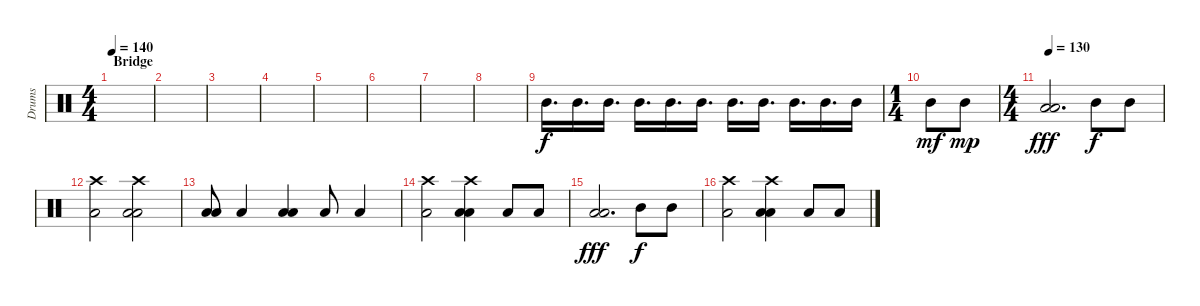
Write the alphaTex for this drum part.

\track ("Drums" "Drums") {instrument percussion}
\staff {score}
\articulation defaults
\ts (4 4)
\section ("" "Bridge")
\tempo 140
\clef neutral
\ks c
|
|
|
|
|
|
|
|
"Mid Tom (hit)".16{d} "Mid Tom (hit)".16{d} "Mid Tom (hit)".16{d} "Mid Tom (hit)".16{d} "Mid Tom (hit)".16{d} "Mid Tom (hit)".16{d} "Mid Tom (hit)".16{d} "Mid Tom (hit)".16{d} "Mid Tom (hit)".16{d} "Mid Tom (hit)".16{d} "Mid Tom (hit)".16 |
\ts (1 4)
"Mid Tom (hit)".8{dy mf} "Mid Tom (hit)".8{dy mp} |
\ts (4 4)
\tempo 130
("Low Tom (hit)" "Low Floor Tom (hit)").2{d dy fff} "Mid Tom (hit)".8{dy f} "Mid Tom (hit)".8 |
("Crash high (hit)" "Low Tom (hit)").2 ("Crash high (hit)" "Low Tom (hit)" "Low Floor Tom (hit)").2 |
("Low Tom (hit)" "Low Floor Tom (hit)").8 "Low Tom (hit)".4 ("Low Tom (hit)" "Low Floor Tom (hit)").4 "Low Tom (hit)".8 "Low Tom (hit)".4 |
("Crash high (hit)" "Low Tom (hit)").2 ("Crash high (hit)" "Low Tom (hit)" "Low Floor Tom (hit)").4 "Low Tom (hit)".8 "Low Tom (hit)".8 |
("Low Tom (hit)" "Low Floor Tom (hit)").2{d dy fff} "Mid Tom (hit)".8{dy f} "Mid Tom (hit)".8 |
("Crash high (hit)" "Low Tom (hit)").2 ("Crash high (hit)" "Low Tom (hit)" "Low Floor Tom (hit)").4 "Low Tom (hit)".8 "Low Tom (hit)".8
